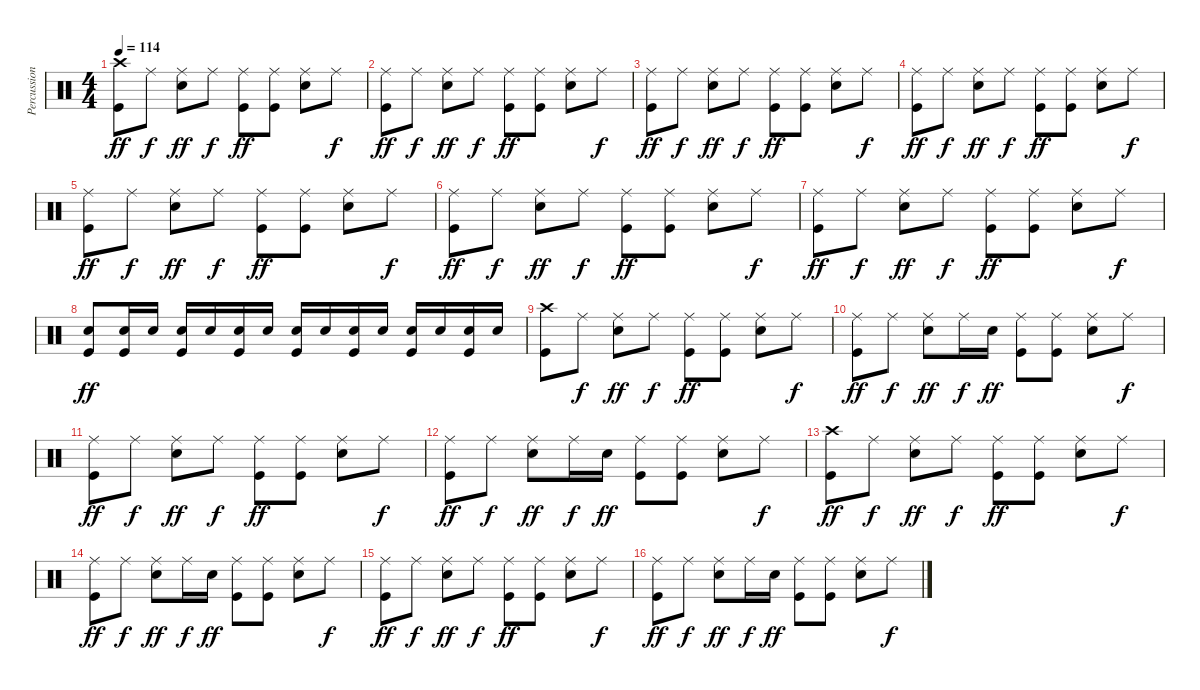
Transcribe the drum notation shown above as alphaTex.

\track ("Percussion" "Percussion") {instrument percussion}
\staff {score}
\articulation defaults
\ts (4 4)
\tempo 114
\clef neutral
\ks c
("Crash high (hit)" "Kick (hit)").8{dy ff} "Ride (middle)".8{dy f} ("Ride (middle)" "Snare (hit) 2").8{dy ff} "Ride (middle)".8{dy f} ("Ride (middle)" "Kick (hit)").8{dy ff} ("Ride (middle)" "Kick (hit)").8 ("Ride (middle)" "Snare (hit) 2").8 "Ride (middle)".8{dy f} |
("Ride (middle)" "Kick (hit)").8{dy ff} "Ride (middle)".8{dy f} ("Ride (middle)" "Snare (hit) 2").8{dy ff} "Ride (middle)".8{dy f} ("Ride (middle)" "Kick (hit)").8{dy ff} ("Ride (middle)" "Kick (hit)").8 ("Ride (middle)" "Snare (hit) 2").8 "Ride (middle)".8{dy f} |
("Ride (middle)" "Kick (hit)").8{dy ff} "Ride (middle)".8{dy f} ("Ride (middle)" "Snare (hit) 2").8{dy ff} "Ride (middle)".8{dy f} ("Ride (middle)" "Kick (hit)").8{dy ff} ("Ride (middle)" "Kick (hit)").8 ("Ride (middle)" "Snare (hit) 2").8 "Ride (middle)".8{dy f} |
("Ride (middle)" "Kick (hit)").8{dy ff} "Ride (middle)".8{dy f} ("Ride (middle)" "Snare (hit) 2").8{dy ff} "Ride (middle)".8{dy f} ("Ride (middle)" "Kick (hit)").8{dy ff} ("Ride (middle)" "Kick (hit)").8 ("Ride (middle)" "Snare (hit) 2").8 "Ride (middle)".8{dy f} |
("Ride (middle)" "Kick (hit)").8{dy ff} "Ride (middle)".8{dy f} ("Ride (middle)" "Snare (hit) 2").8{dy ff} "Ride (middle)".8{dy f} ("Ride (middle)" "Kick (hit)").8{dy ff} ("Ride (middle)" "Kick (hit)").8 ("Ride (middle)" "Snare (hit) 2").8 "Ride (middle)".8{dy f} |
("Ride (middle)" "Kick (hit)").8{dy ff} "Ride (middle)".8{dy f} ("Ride (middle)" "Snare (hit) 2").8{dy ff} "Ride (middle)".8{dy f} ("Ride (middle)" "Kick (hit)").8{dy ff} ("Ride (middle)" "Kick (hit)").8 ("Ride (middle)" "Snare (hit) 2").8 "Ride (middle)".8{dy f} |
("Ride (middle)" "Kick (hit)").8{dy ff} "Ride (middle)".8{dy f} ("Ride (middle)" "Snare (hit) 2").8{dy ff} "Ride (middle)".8{dy f} ("Ride (middle)" "Kick (hit)").8{dy ff} ("Ride (middle)" "Kick (hit)").8 ("Ride (middle)" "Snare (hit) 2").8 "Ride (middle)".8{dy f} |
("Snare (hit) 2" "Kick (hit)").8{dy ff} ("Snare (hit) 2" "Kick (hit)").16 "Snare (hit) 2".16 ("Snare (hit) 2" "Kick (hit)").16 "Snare (hit) 2".16 ("Snare (hit) 2" "Kick (hit)").16 "Snare (hit) 2".16 ("Snare (hit) 2" "Kick (hit)").16 "Snare (hit) 2".16 ("Snare (hit) 2" "Kick (hit)").16 "Snare (hit) 2".16 ("Snare (hit) 2" "Kick (hit)").16 "Snare (hit) 2".16 ("Snare (hit) 2" "Kick (hit)").16 "Snare (hit) 2".16 |
("Crash high (hit)" "Kick (hit)").8 "Ride (middle)".8{dy f} ("Ride (middle)" "Snare (hit) 2").8{dy ff} "Ride (middle)".8{dy f} ("Ride (middle)" "Kick (hit)").8{dy ff} ("Ride (middle)" "Kick (hit)").8 ("Ride (middle)" "Snare (hit) 2").8 "Ride (middle)".8{dy f} |
("Ride (middle)" "Kick (hit)").8{dy ff} "Ride (middle)".8{dy f} ("Ride (middle)" "Snare (hit) 2").8{dy ff} "Ride (middle)".16{dy f} "Snare (hit) 2".16{dy ff} ("Ride (middle)" "Kick (hit)").8 ("Ride (middle)" "Kick (hit)").8 ("Ride (middle)" "Snare (hit) 2").8 "Ride (middle)".8{dy f} |
("Ride (middle)" "Kick (hit)").8{dy ff} "Ride (middle)".8{dy f} ("Ride (middle)" "Snare (hit) 2").8{dy ff} "Ride (middle)".8{dy f} ("Ride (middle)" "Kick (hit)").8{dy ff} ("Ride (middle)" "Kick (hit)").8 ("Ride (middle)" "Snare (hit) 2").8 "Ride (middle)".8{dy f} |
("Ride (middle)" "Kick (hit)").8{dy ff} "Ride (middle)".8{dy f} ("Ride (middle)" "Snare (hit) 2").8{dy ff} "Ride (middle)".16{dy f} "Snare (hit) 2".16{dy ff} ("Ride (middle)" "Kick (hit)").8 ("Ride (middle)" "Kick (hit)").8 ("Ride (middle)" "Snare (hit) 2").8 "Ride (middle)".8{dy f} |
("Crash high (hit)" "Kick (hit)").8{dy ff} "Ride (middle)".8{dy f} ("Ride (middle)" "Snare (hit) 2").8{dy ff} "Ride (middle)".8{dy f} ("Ride (middle)" "Kick (hit)").8{dy ff} ("Ride (middle)" "Kick (hit)").8 ("Ride (middle)" "Snare (hit) 2").8 "Ride (middle)".8{dy f} |
("Ride (middle)" "Kick (hit)").8{dy ff} "Ride (middle)".8{dy f} ("Ride (middle)" "Snare (hit) 2").8{dy ff} "Ride (middle)".16{dy f} "Snare (hit) 2".16{dy ff} ("Ride (middle)" "Kick (hit)").8 ("Ride (middle)" "Kick (hit)").8 ("Ride (middle)" "Snare (hit) 2").8 "Ride (middle)".8{dy f} |
("Ride (middle)" "Kick (hit)").8{dy ff} "Ride (middle)".8{dy f} ("Ride (middle)" "Snare (hit) 2").8{dy ff} "Ride (middle)".8{dy f} ("Ride (middle)" "Kick (hit)").8{dy ff} ("Ride (middle)" "Kick (hit)").8 ("Ride (middle)" "Snare (hit) 2").8 "Ride (middle)".8{dy f} |
("Ride (middle)" "Kick (hit)").8{dy ff} "Ride (middle)".8{dy f} ("Ride (middle)" "Snare (hit) 2").8{dy ff} "Ride (middle)".16{dy f} "Snare (hit) 2".16{dy ff} ("Ride (middle)" "Kick (hit)").8 ("Ride (middle)" "Kick (hit)").8 ("Ride (middle)" "Snare (hit) 2").8 "Ride (middle)".8{dy f}
